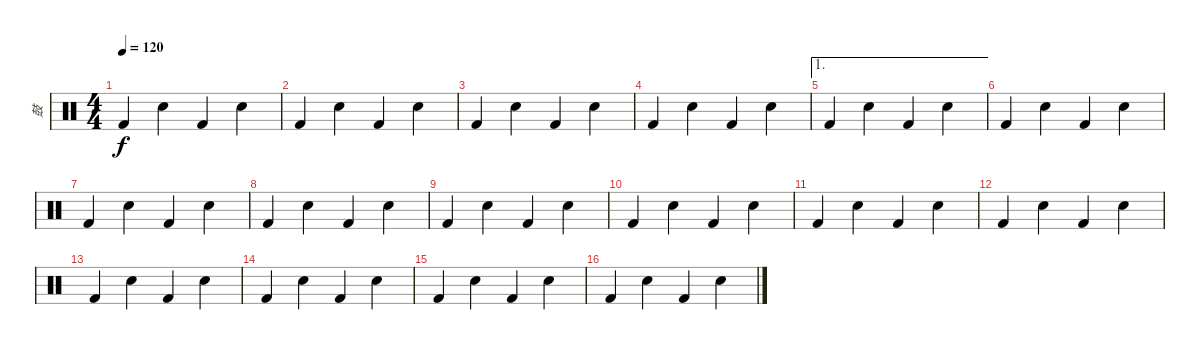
\track ("鼓" "鼓") {instrument percussion}
\staff {score}
\articulation defaults
\ts (4 4)
\tempo 120
\clef neutral
\ks c "Kick (hit) 2".4{dy f} "Electric Snare (hit)".4 "Kick (hit) 2".4 "Electric Snare (hit)".4
|
"Kick (hit) 2".4 "Electric Snare (hit)".4 "Kick (hit) 2".4 "Electric Snare (hit)".4 |
"Kick (hit) 2".4 "Electric Snare (hit)".4 "Kick (hit) 2".4 "Electric Snare (hit)".4 |
"Kick (hit) 2".4 "Electric Snare (hit)".4 "Kick (hit) 2".4 "Electric Snare (hit)".4 |
\ae 1 "Kick (hit) 2".4 "Electric Snare (hit)".4 "Kick (hit) 2".4 "Electric Snare (hit)".4
|
"Kick (hit) 2".4 "Electric Snare (hit)".4 "Kick (hit) 2".4 "Electric Snare (hit)".4 |
"Kick (hit) 2".4 "Electric Snare (hit)".4 "Kick (hit) 2".4 "Electric Snare (hit)".4 |
"Kick (hit) 2".4 "Electric Snare (hit)".4 "Kick (hit) 2".4 "Electric Snare (hit)".4 |
"Kick (hit) 2".4 "Electric Snare (hit)".4 "Kick (hit) 2".4 "Electric Snare (hit)".4 |
"Kick (hit) 2".4 "Electric Snare (hit)".4 "Kick (hit) 2".4 "Electric Snare (hit)".4 |
"Kick (hit) 2".4 "Electric Snare (hit)".4 "Kick (hit) 2".4 "Electric Snare (hit)".4 |
"Kick (hit) 2".4 "Electric Snare (hit)".4 "Kick (hit) 2".4 "Electric Snare (hit)".4 |
"Kick (hit) 2".4 "Electric Snare (hit)".4 "Kick (hit) 2".4 "Electric Snare (hit)".4 |
"Kick (hit) 2".4 "Electric Snare (hit)".4 "Kick (hit) 2".4 "Electric Snare (hit)".4 |
"Kick (hit) 2".4 "Electric Snare (hit)".4 "Kick (hit) 2".4 "Electric Snare (hit)".4 |
"Kick (hit) 2".4 "Electric Snare (hit)".4 "Kick (hit) 2".4 "Electric Snare (hit)".4
